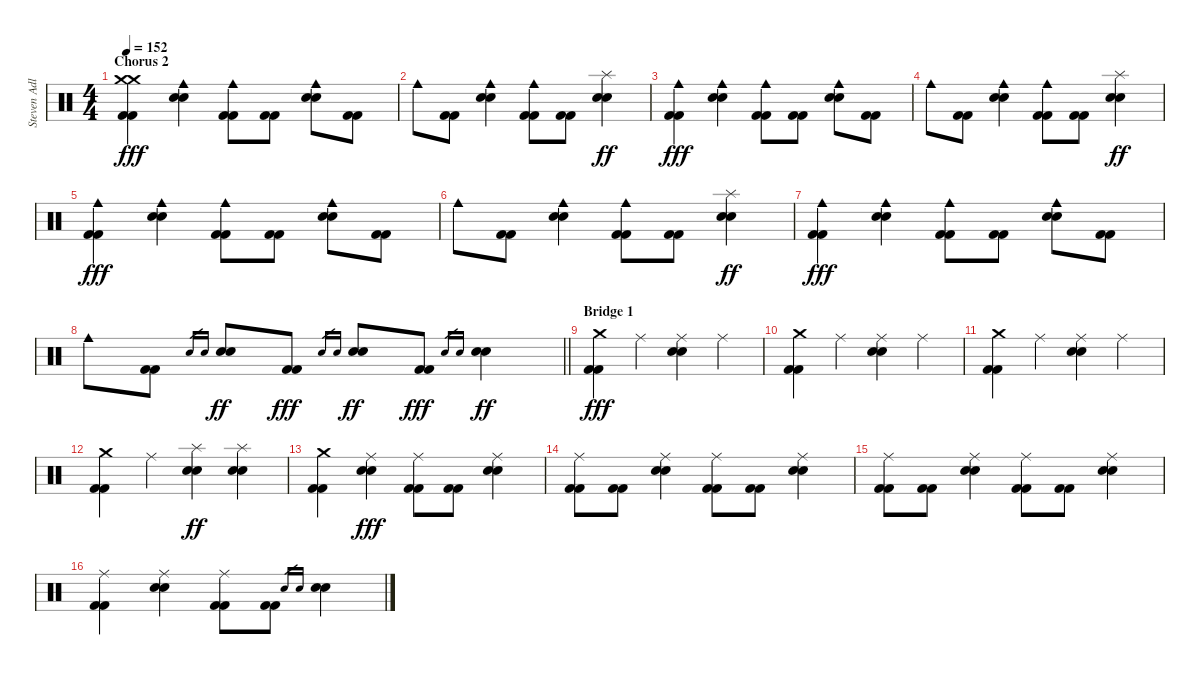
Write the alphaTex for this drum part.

\track ("Steven Adler" "Steven Adl") {instrument percussion}
\staff {score}
\articulation defaults
\ts (4 4)
\section ("" "Chorus 2")
\tempo 152
\clef neutral
\ks c
("Crash medium (hit)" "Crash medium (hit)" "Kick (hit) 2" "Kick (hit) 2").4{dy fff} ("Cowbell medium (hit)" "Electric Snare (hit)" "Electric Snare (hit)").4 ("Cowbell medium (hit)" "Kick (hit) 2" "Kick (hit) 2").8 ("Kick (hit) 2" "Kick (hit) 2").8 ("Cowbell medium (hit)" "Electric Snare (hit)" "Electric Snare (hit)").8 ("Kick (hit) 2" "Kick (hit) 2").8 |
"Cowbell medium (hit)".8 ("Kick (hit) 2" "Kick (hit) 2").8 ("Cowbell medium (hit)" "Electric Snare (hit)" "Electric Snare (hit)").4 ("Cowbell medium (hit)" "Kick (hit) 2" "Kick (hit) 2").8 ("Kick (hit) 2" "Kick (hit) 2").8 ("Splash (hit)" "Electric Snare (hit)" "Electric Snare (hit)").4{dy ff} |
("Cowbell medium (hit)" "Kick (hit) 2" "Kick (hit) 2").4{dy fff} ("Cowbell medium (hit)" "Electric Snare (hit)" "Electric Snare (hit)").4 ("Cowbell medium (hit)" "Kick (hit) 2" "Kick (hit) 2").8 ("Kick (hit) 2" "Kick (hit) 2").8 ("Cowbell medium (hit)" "Electric Snare (hit)" "Electric Snare (hit)").8 ("Kick (hit) 2" "Kick (hit) 2").8 |
"Cowbell medium (hit)".8 ("Kick (hit) 2" "Kick (hit) 2").8 ("Cowbell medium (hit)" "Electric Snare (hit)" "Electric Snare (hit)").4 ("Cowbell medium (hit)" "Kick (hit) 2" "Kick (hit) 2").8 ("Kick (hit) 2" "Kick (hit) 2").8 ("Splash (hit)" "Electric Snare (hit)" "Electric Snare (hit)").4{dy ff} |
("Cowbell medium (hit)" "Kick (hit) 2" "Kick (hit) 2").4{dy fff} ("Cowbell medium (hit)" "Electric Snare (hit)" "Electric Snare (hit)").4 ("Cowbell medium (hit)" "Kick (hit) 2" "Kick (hit) 2").8 ("Kick (hit) 2" "Kick (hit) 2").8 ("Cowbell medium (hit)" "Electric Snare (hit)" "Electric Snare (hit)").8 ("Kick (hit) 2" "Kick (hit) 2").8 |
"Cowbell medium (hit)".8 ("Kick (hit) 2" "Kick (hit) 2").8 ("Cowbell medium (hit)" "Electric Snare (hit)" "Electric Snare (hit)").4 ("Cowbell medium (hit)" "Kick (hit) 2" "Kick (hit) 2").8 ("Kick (hit) 2" "Kick (hit) 2").8 ("Splash (hit)" "Electric Snare (hit)" "Electric Snare (hit)").4{dy ff} |
("Cowbell medium (hit)" "Kick (hit) 2" "Kick (hit) 2").4{dy fff} ("Cowbell medium (hit)" "Electric Snare (hit)" "Electric Snare (hit)").4 ("Cowbell medium (hit)" "Kick (hit) 2" "Kick (hit) 2").8 ("Kick (hit) 2" "Kick (hit) 2").8 ("Cowbell medium (hit)" "Electric Snare (hit)" "Electric Snare (hit)").8 ("Kick (hit) 2" "Kick (hit) 2").8 |
\barLineRight lightlight "Cowbell medium (hit)".8
("Kick (hit) 2" "Kick (hit) 2").8 "Electric Snare (hit)".16{gr} "Electric Snare (hit)".16{gr} ("Electric Snare (hit)" "Electric Snare (hit)").8{dy ff} ("Kick (hit) 2" "Kick (hit) 2").8{dy fff} "Electric Snare (hit)".16{gr} "Electric Snare (hit)".16{gr} ("Electric Snare (hit)" "Electric Snare (hit)").8{dy ff} ("Kick (hit) 2" "Kick (hit) 2").8{dy fff} "Electric Snare (hit)".16{gr} "Electric Snare (hit)".16{gr} ("Electric Snare (hit)" "Electric Snare (hit)").4{dy ff} |
\section ("" "Bridge 1")
("Crash medium (hit)" "Kick (hit) 2" "Kick (hit) 2").4{dy fff} "Ride (middle)".4 ("Ride (middle)" "Electric Snare (hit)" "Electric Snare (hit)").4 "Ride (middle)".4 |
("Crash medium (hit)" "Kick (hit) 2" "Kick (hit) 2").4 "Ride (middle)".4 ("Ride (middle)" "Electric Snare (hit)" "Electric Snare (hit)").4 "Ride (middle)".4 |
("Crash medium (hit)" "Kick (hit) 2" "Kick (hit) 2").4 "Ride (middle)".4 ("Ride (middle)" "Electric Snare (hit)" "Electric Snare (hit)").4 "Ride (middle)".4 |
("Crash medium (hit)" "Kick (hit) 2" "Kick (hit) 2").4 "Ride (middle)".4 ("Splash (hit)" "Electric Snare (hit)" "Electric Snare (hit)").4{dy ff} ("Splash (hit)" "Electric Snare (hit)" "Electric Snare (hit)").4 |
("Crash medium (hit)" "Kick (hit) 2" "Kick (hit) 2").4 ("Ride (middle)" "Electric Snare (hit)" "Electric Snare (hit)").4{dy fff} ("Ride (middle)" "Kick (hit) 2" "Kick (hit) 2").8 ("Kick (hit) 2" "Kick (hit) 2").8 ("Ride (middle)" "Electric Snare (hit)" "Electric Snare (hit)").4 |
("Ride (middle)" "Kick (hit) 2" "Kick (hit) 2").8 ("Kick (hit) 2" "Kick (hit) 2").8 ("Ride (middle)" "Electric Snare (hit)" "Electric Snare (hit)").4 ("Ride (middle)" "Kick (hit) 2" "Kick (hit) 2").8 ("Kick (hit) 2" "Kick (hit) 2").8 ("Ride (middle)" "Electric Snare (hit)" "Electric Snare (hit)").4 |
("Ride (middle)" "Kick (hit) 2" "Kick (hit) 2").8 ("Kick (hit) 2" "Kick (hit) 2").8 ("Ride (middle)" "Electric Snare (hit)" "Electric Snare (hit)").4 ("Ride (middle)" "Kick (hit) 2" "Kick (hit) 2").8 ("Kick (hit) 2" "Kick (hit) 2").8 ("Ride (middle)" "Electric Snare (hit)" "Electric Snare (hit)").4 |
("Ride (middle)" "Kick (hit) 2" "Kick (hit) 2").4 ("Ride (middle)" "Electric Snare (hit)" "Electric Snare (hit)").4 ("Ride (middle)" "Kick (hit) 2" "Kick (hit) 2").8 ("Kick (hit) 2" "Kick (hit) 2").8 "Electric Snare (hit)".16{gr} "Electric Snare (hit)".16{gr} ("Electric Snare (hit)" "Electric Snare (hit)").4
